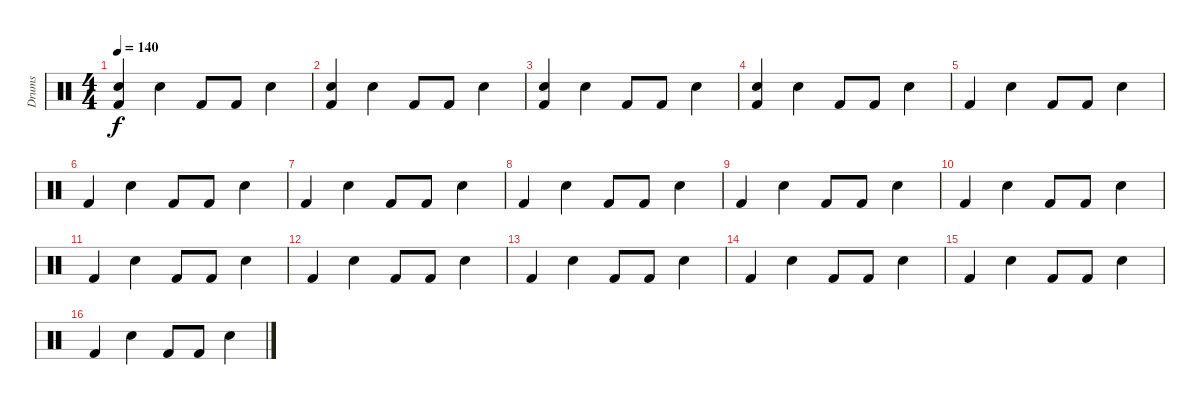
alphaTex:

\track ("Drums" "Drums") {instrument percussion}
\staff {score}
\articulation defaults
\ts (4 4)
\tempo 140
\clef neutral
\ks c
("Kick (hit) 2" "Snare (hit) 2").4{dy f} "Snare (hit) 2".4 "Kick (hit) 2".8 "Kick (hit) 2".8 "Snare (hit) 2".4 |
("Kick (hit) 2" "Snare (hit) 2").4 "Snare (hit) 2".4 "Kick (hit) 2".8 "Kick (hit) 2".8 "Snare (hit) 2".4 |
("Kick (hit) 2" "Snare (hit) 2").4 "Snare (hit) 2".4 "Kick (hit) 2".8 "Kick (hit) 2".8 "Snare (hit) 2".4 |
("Kick (hit) 2" "Snare (hit) 2").4 "Snare (hit) 2".4 "Kick (hit) 2".8 "Kick (hit) 2".8 "Snare (hit) 2".4 |
"Kick (hit) 2".4 "Snare (hit) 2".4 "Kick (hit) 2".8 "Kick (hit) 2".8 "Snare (hit) 2".4 |
"Kick (hit) 2".4 "Snare (hit) 2".4 "Kick (hit) 2".8 "Kick (hit) 2".8 "Snare (hit) 2".4 |
"Kick (hit) 2".4 "Snare (hit) 2".4 "Kick (hit) 2".8 "Kick (hit) 2".8 "Snare (hit) 2".4 |
"Kick (hit) 2".4 "Snare (hit) 2".4 "Kick (hit) 2".8 "Kick (hit) 2".8 "Snare (hit) 2".4 |
"Kick (hit) 2".4 "Snare (hit) 2".4 "Kick (hit) 2".8 "Kick (hit) 2".8 "Snare (hit) 2".4 |
"Kick (hit) 2".4 "Snare (hit) 2".4 "Kick (hit) 2".8 "Kick (hit) 2".8 "Snare (hit) 2".4 |
"Kick (hit) 2".4 "Snare (hit) 2".4 "Kick (hit) 2".8 "Kick (hit) 2".8 "Snare (hit) 2".4 |
"Kick (hit) 2".4 "Snare (hit) 2".4 "Kick (hit) 2".8 "Kick (hit) 2".8 "Snare (hit) 2".4 |
"Kick (hit) 2".4 "Snare (hit) 2".4 "Kick (hit) 2".8 "Kick (hit) 2".8 "Snare (hit) 2".4 |
"Kick (hit) 2".4 "Snare (hit) 2".4 "Kick (hit) 2".8 "Kick (hit) 2".8 "Snare (hit) 2".4 |
"Kick (hit) 2".4 "Snare (hit) 2".4 "Kick (hit) 2".8 "Kick (hit) 2".8 "Snare (hit) 2".4 |
"Kick (hit) 2".4 "Snare (hit) 2".4 "Kick (hit) 2".8 "Kick (hit) 2".8 "Snare (hit) 2".4
